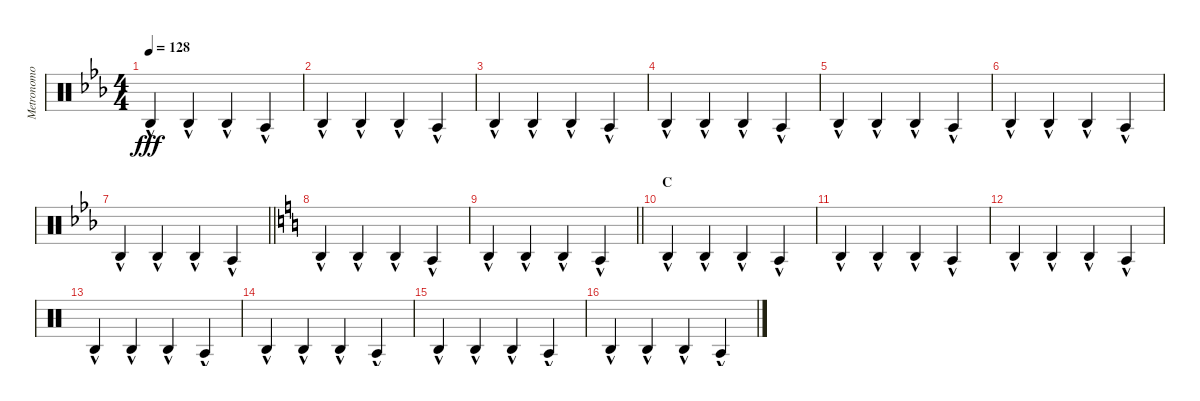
\track ("Metronomo" "Metronomo") {mute instrument percussion}
\staff {score}
\articulation defaults
\ts (4 4)
\tempo 128
\clef neutral
\ks eb "Agogo high (hit)"{hac}.4{dy fff} "Agogo high (hit)"{hac}.4 "Agogo high (hit)"{hac}.4 "Agogo tow (hit)"{hac}.4
|
"Agogo high (hit)"{hac}.4 "Agogo high (hit)"{hac}.4 "Agogo high (hit)"{hac}.4 "Agogo tow (hit)"{hac}.4 |
"Agogo high (hit)"{hac}.4 "Agogo high (hit)"{hac}.4 "Agogo high (hit)"{hac}.4 "Agogo tow (hit)"{hac}.4 |
"Agogo high (hit)"{hac}.4 "Agogo high (hit)"{hac}.4 "Agogo high (hit)"{hac}.4 "Agogo tow (hit)"{hac}.4 |
"Agogo high (hit)"{hac}.4 "Agogo high (hit)"{hac}.4 "Agogo high (hit)"{hac}.4 "Agogo tow (hit)"{hac}.4 |
"Agogo high (hit)"{hac}.4 "Agogo high (hit)"{hac}.4 "Agogo high (hit)"{hac}.4 "Agogo tow (hit)"{hac}.4 |
\barLineRight lightlight "Agogo high (hit)"{hac}.4 "Agogo high (hit)"{hac}.4 "Agogo high (hit)"{hac}.4 "Agogo tow (hit)"{hac}.4
|
\section ("" "")
\ks c "Agogo high (hit)"{hac}.4 "Agogo high (hit)"{hac}.4 "Agogo high (hit)"{hac}.4 "Agogo tow (hit)"{hac}.4
|
\barLineRight lightlight "Agogo high (hit)"{hac}.4 "Agogo high (hit)"{hac}.4 "Agogo high (hit)"{hac}.4 "Agogo tow (hit)"{hac}.4
|
\section ("" "C")
"Agogo high (hit)"{hac}.4 "Agogo high (hit)"{hac}.4 "Agogo high (hit)"{hac}.4 "Agogo tow (hit)"{hac}.4 |
"Agogo high (hit)"{hac}.4 "Agogo high (hit)"{hac}.4 "Agogo high (hit)"{hac}.4 "Agogo tow (hit)"{hac}.4 |
"Agogo high (hit)"{hac}.4 "Agogo high (hit)"{hac}.4 "Agogo high (hit)"{hac}.4 "Agogo tow (hit)"{hac}.4 |
"Agogo high (hit)"{hac}.4 "Agogo high (hit)"{hac}.4 "Agogo high (hit)"{hac}.4 "Agogo tow (hit)"{hac}.4 |
"Agogo high (hit)"{hac}.4 "Agogo high (hit)"{hac}.4 "Agogo high (hit)"{hac}.4 "Agogo tow (hit)"{hac}.4 |
"Agogo high (hit)"{hac}.4 "Agogo high (hit)"{hac}.4 "Agogo high (hit)"{hac}.4 "Agogo tow (hit)"{hac}.4 |
"Agogo high (hit)"{hac}.4 "Agogo high (hit)"{hac}.4 "Agogo high (hit)"{hac}.4 "Agogo tow (hit)"{hac}.4
